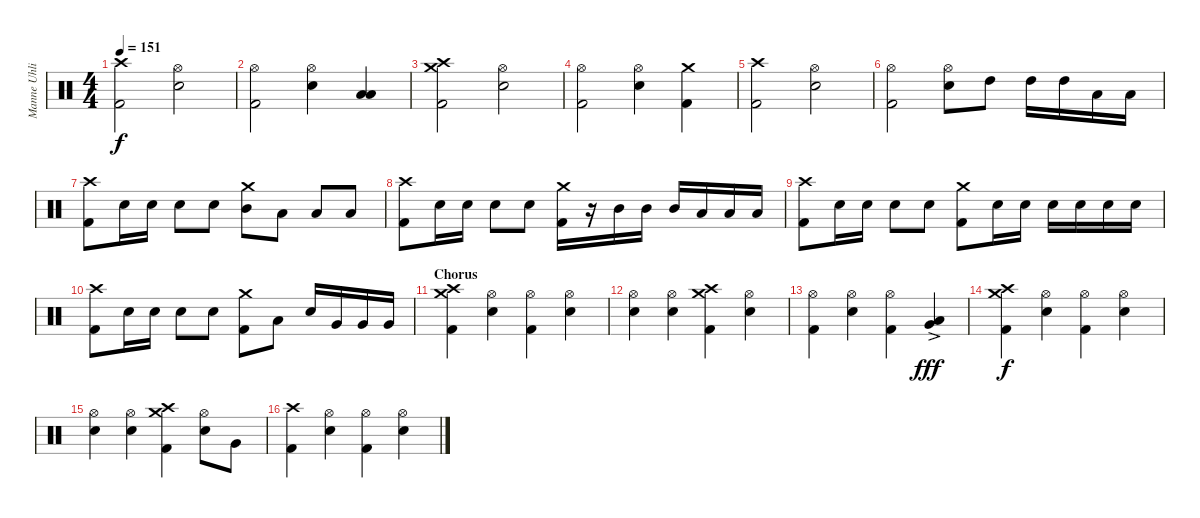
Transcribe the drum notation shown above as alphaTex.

\track ("Manne Uhlig" "Manne Uhli") {instrument percussion}
\staff {score}
\articulation defaults
\ts (4 4)
\tempo 151
\clef neutral
\ks c
("Crash high (hit)" "Kick (hit) 2").2{dy f} ("Hi-Hat (open)" "Snare (hit) 2").2 |
("Hi-Hat (open)" "Kick (hit) 2").2 ("Hi-Hat (open)" "Snare (hit) 2").4 ("Low Tom (hit)" "Low Floor Tom (hit)").4 |
("Crash high (hit)" "Crash medium (hit)" "Kick (hit) 2").2 ("Hi-Hat (open)" "Snare (hit) 2").2 |
("Hi-Hat (open)" "Kick (hit) 2").2 ("Hi-Hat (open)" "Snare (hit) 2").4 ("Crash medium (hit)" "Kick (hit) 2").4 |
("Crash high (hit)" "Kick (hit) 2").2 ("Hi-Hat (open)" "Snare (hit) 2").2 |
("Hi-Hat (open)" "Kick (hit) 2").2 ("Hi-Hat (open)" "Snare (hit) 2").8 "High Tom (hit)".8 "High Tom (hit)".16 "High Tom (hit)".16 "Low Tom (hit)".16 "Low Tom (hit)".16 |
("Crash high (hit)" "Kick (hit) 2").8 "Snare (hit) 2".16 "Snare (hit) 2".16 "Snare (hit) 2".8 "Snare (hit) 2".8 ("Crash medium (hit)" "Mid Tom (hit)").8 "Low Tom (hit)".8 "Low Tom (hit)".8 "Low Tom (hit)".8 |
("Crash high (hit)" "Kick (hit) 2").8 "Snare (hit) 2".16 "Snare (hit) 2".16 "Snare (hit) 2".8 "Snare (hit) 2".8 ("Crash medium (hit)" "Kick (hit) 2").16 r.16 "Mid Tom (hit)".16 "Mid Tom (hit)".16 "Mid Tom (hit)".16 "Low Tom (hit)".16 "Low Tom (hit)".16 "Low Tom (hit)".16 |
("Crash high (hit)" "Kick (hit) 2").8 "Snare (hit) 2".16 "Snare (hit) 2".16 "Snare (hit) 2".8 "Snare (hit) 2".8 ("Crash medium (hit)" "Kick (hit) 2").8 "Snare (hit) 2".16 "Snare (hit) 2".16 "Snare (hit) 2".16 "Snare (hit) 2".16 "Snare (hit) 2".16 "Snare (hit) 2".16 |
("Crash high (hit)" "Kick (hit) 2").8 "Snare (hit) 2".16 "Snare (hit) 2".16 "Snare (hit) 2".8 "Snare (hit) 2".8 ("Crash medium (hit)" "Kick (hit) 2").8 "Low Tom (hit)".8 "Snare (hit) 2".16 "Very Low Tom (hit)".16 "Very Low Tom (hit)".16 "Very Low Tom (hit)".16 |
\section ("" "Chorus")
("Crash high (hit)" "Crash medium (hit)" "Kick (hit) 2").4 ("Hi-Hat (open)" "Snare (hit) 2").4 ("Hi-Hat (open)" "Kick (hit) 2").4 ("Hi-Hat (open)" "Snare (hit) 2").4 |
("Hi-Hat (open)" "Snare (hit) 2").4 ("Hi-Hat (open)" "Snare (hit) 2").4 ("Crash high (hit)" "Crash medium (hit)" "Kick (hit) 2").4 ("Hi-Hat (open)" "Snare (hit) 2").4 |
("Hi-Hat (open)" "Kick (hit) 2").4 ("Hi-Hat (open)" "Snare (hit) 2").4 ("Hi-Hat (open)" "Kick (hit) 2").4 ("Very Low Tom (hit)"{ac} "Low Floor Tom (hit)").4{dy fff} |
("Crash high (hit)" "Crash medium (hit)" "Kick (hit) 2").4{dy f} ("Hi-Hat (open)" "Snare (hit) 2").4 ("Hi-Hat (open)" "Kick (hit) 2").4 ("Hi-Hat (open)" "Snare (hit) 2").4 |
("Hi-Hat (open)" "Snare (hit) 2").4 ("Hi-Hat (open)" "Snare (hit) 2").4 ("Crash high (hit)" "Crash medium (hit)" "Kick (hit) 2").4 ("Hi-Hat (open)" "Snare (hit) 2").8 "Very Low Tom (hit)".8 |
("Crash high (hit)" "Kick (hit) 2").4 ("Hi-Hat (open)" "Snare (hit) 2").4 ("Hi-Hat (open)" "Kick (hit) 2").4 ("Hi-Hat (open)" "Snare (hit) 2").4
